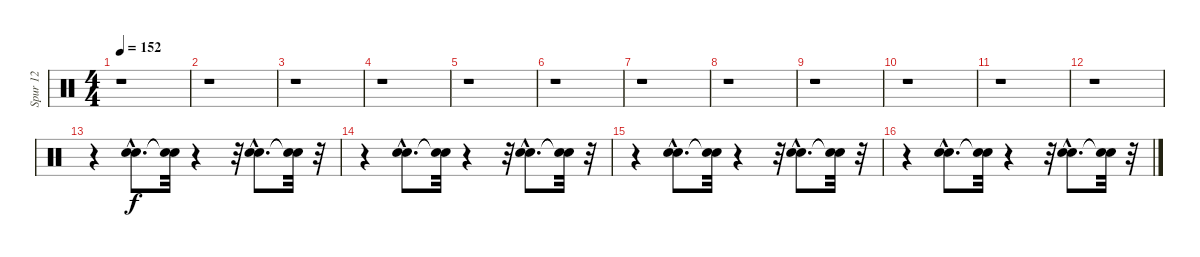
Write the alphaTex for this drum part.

\track ("Spur 12" "Spur 12") {instrument percussion}
\staff {score}
\articulation defaults
\ts (4 4)
\tempo 152
\clef neutral
\ks c
r.1{dy f} |
r.1 |
r.1 |
r.1 |
r.1 |
r.1 |
r.1 |
r.1 |
r.1 |
r.1 |
r.1 |
r.1 |
r.4 ("Hand Clap (hit)"{hac} "Electric Snare (hit)"{hac}).8{d} ("Snare (hit)"{t} "Snare (hit)"{t}).32 r.4 r.32 ("Hand Clap (hit)"{hac} "Electric Snare (hit)"{hac}).8{d} ("Snare (hit)"{t} "Snare (hit)"{t}).32 r.32 |
r.4 ("Hand Clap (hit)"{hac} "Electric Snare (hit)"{hac}).8{d} ("Snare (hit)"{t} "Snare (hit)"{t}).32 r.4 r.32 ("Hand Clap (hit)"{hac} "Electric Snare (hit)"{hac}).8{d} ("Snare (hit)"{t} "Snare (hit)"{t}).32 r.32 |
r.4 ("Hand Clap (hit)"{hac} "Electric Snare (hit)"{hac}).8{d} ("Snare (hit)"{t} "Snare (hit)"{t}).32 r.4 r.32 ("Hand Clap (hit)"{hac} "Electric Snare (hit)"{hac}).8{d} ("Snare (hit)"{t} "Snare (hit)"{t}).32 r.32 |
r.4 ("Hand Clap (hit)"{hac} "Electric Snare (hit)"{hac}).8{d} ("Snare (hit)"{t} "Snare (hit)"{t}).32 r.4 r.32 ("Hand Clap (hit)"{hac} "Electric Snare (hit)"{hac}).8{d} ("Snare (hit)"{t} "Snare (hit)"{t}).32 r.32
